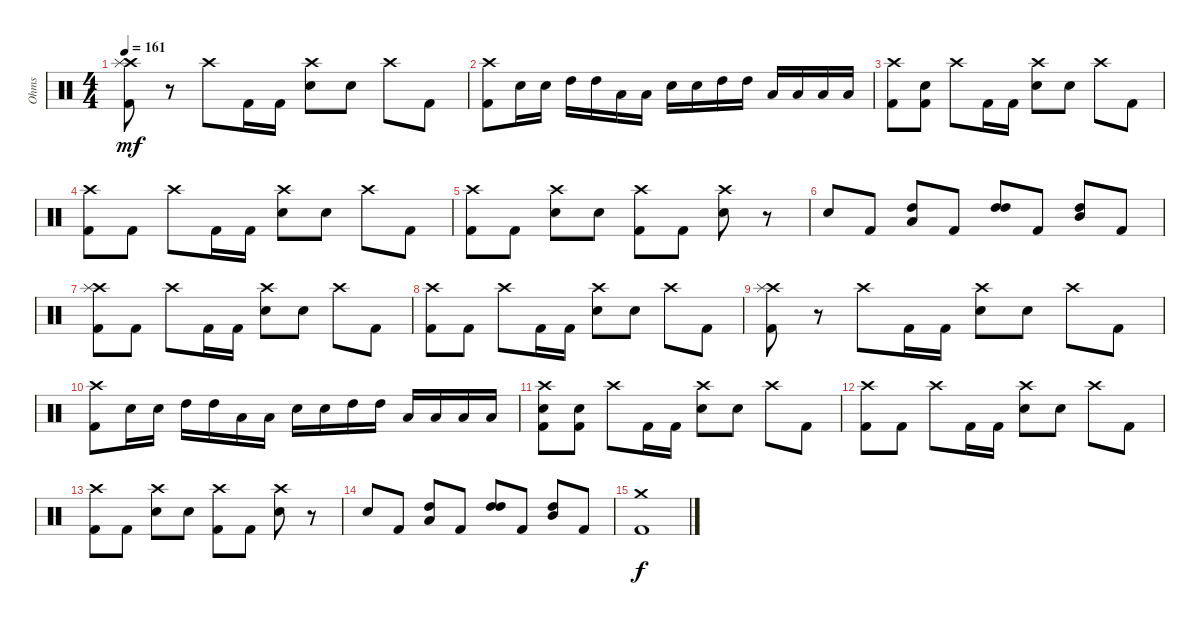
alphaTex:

\track ("Ohms" "Ohms") {instrument percussion}
\staff {score}
\articulation defaults
\ts (4 4)
\tempo 161
\clef neutral
\ks c
("Crash high (hit)" "Splash (hit)" "Kick (hit) 2").8{dy mf} r.8 "Crash high (hit)".8 "Kick (hit) 2".16 "Kick (hit) 2".16 ("Crash high (hit)" "Snare (hit) 2").8 "Snare (hit) 2".8 "Crash high (hit)".8 "Kick (hit) 2".8 |
("Crash high (hit)" "Kick (hit) 2").8 "Snare (hit) 2".16 "Snare (hit) 2".16 "High Tom (hit)".16 "High Tom (hit)".16 "Low Tom (hit)".16 "Low Tom (hit)".16 "Snare (hit) 2".16 "Snare (hit) 2".16 "High Tom (hit)".16 "High Tom (hit)".16 "Low Tom (hit)".16 "Low Tom (hit)".16 "Low Tom (hit)".16 "Low Tom (hit)".16 |
("Crash high (hit)" "Kick (hit) 2").8 ("Snare (hit) 2" "Kick (hit) 2").8 "Crash high (hit)".8 "Kick (hit) 2".16 "Kick (hit) 2".16 ("Crash high (hit)" "Snare (hit) 2").8 "Snare (hit) 2".8 "Crash high (hit)".8 "Kick (hit) 2".8 |
("Crash high (hit)" "Kick (hit) 2").8 "Kick (hit) 2".8 "Crash high (hit)".8 "Kick (hit) 2".16 "Kick (hit) 2".16 ("Crash high (hit)" "Snare (hit) 2").8 "Snare (hit) 2".8 "Crash high (hit)".8 "Kick (hit) 2".8 |
("Crash high (hit)" "Kick (hit) 2").8 "Kick (hit) 2".8 ("Crash high (hit)" "Snare (hit) 2").8 "Snare (hit) 2".8 ("Crash high (hit)" "Kick (hit) 2").8 "Kick (hit) 2".8 ("Crash high (hit)" "Snare (hit) 2").8 r.8 |
"Snare (hit) 2".8 "Kick (hit) 2".8 ("High Tom (hit)" "Low Tom (hit)").8 "Kick (hit) 2".8 ("High Tom (hit)" "High Tom (hit)").8 "Kick (hit) 2".8 ("High Tom (hit)" "Mid Tom (hit)").8 "Kick (hit) 2".8 |
("Crash high (hit)" "Splash (hit)" "Kick (hit) 2").8 "Kick (hit) 2".8 "Crash high (hit)".8 "Kick (hit) 2".16 "Kick (hit) 2".16 ("Crash high (hit)" "Snare (hit) 2").8 "Snare (hit) 2".8 "Crash high (hit)".8 "Kick (hit) 2".8 |
("Crash high (hit)" "Kick (hit) 2").8 "Kick (hit) 2".8 "Crash high (hit)".8 "Kick (hit) 2".16 "Kick (hit) 2".16 ("Crash high (hit)" "Snare (hit) 2").8 "Snare (hit) 2".8 "Crash high (hit)".8 "Kick (hit) 2".8 |
("Crash high (hit)" "Splash (hit)" "Kick (hit) 2").8 r.8 "Crash high (hit)".8 "Kick (hit) 2".16 "Kick (hit) 2".16 ("Crash high (hit)" "Snare (hit) 2").8 "Snare (hit) 2".8 "Crash high (hit)".8 "Kick (hit) 2".8 |
("Crash high (hit)" "Kick (hit) 2").8 "Snare (hit) 2".16 "Snare (hit) 2".16 "High Tom (hit)".16 "High Tom (hit)".16 "Low Tom (hit)".16 "Low Tom (hit)".16 "Snare (hit) 2".16 "Snare (hit) 2".16 "High Tom (hit)".16 "High Tom (hit)".16 "Low Tom (hit)".16 "Low Tom (hit)".16 "Low Tom (hit)".16 "Low Tom (hit)".16 |
("Crash high (hit)" "Snare (hit) 2" "Kick (hit) 2").8 ("Snare (hit) 2" "Kick (hit) 2").8 "Crash high (hit)".8 "Kick (hit) 2".16 "Kick (hit) 2".16 ("Crash high (hit)" "Snare (hit) 2").8 "Snare (hit) 2".8 "Crash high (hit)".8 "Kick (hit) 2".8 |
("Crash high (hit)" "Kick (hit) 2").8 "Kick (hit) 2".8 "Crash high (hit)".8 "Kick (hit) 2".16 "Kick (hit) 2".16 ("Crash high (hit)" "Snare (hit) 2").8 "Snare (hit) 2".8 "Crash high (hit)".8 "Kick (hit) 2".8 |
("Crash high (hit)" "Kick (hit) 2").8 "Kick (hit) 2".8 ("Crash high (hit)" "Snare (hit) 2").8 "Snare (hit) 2".8 ("Crash high (hit)" "Kick (hit) 2").8 "Kick (hit) 2".8 ("Crash high (hit)" "Snare (hit) 2").8 r.8 |
"Snare (hit) 2".8 "Kick (hit) 2".8 ("High Tom (hit)" "Low Tom (hit)").8 "Kick (hit) 2".8 ("High Tom (hit)" "High Tom (hit)").8 "Kick (hit) 2".8 ("High Tom (hit)" "Mid Tom (hit)").8 "Kick (hit) 2".8 |
("Crash medium (hit)" "Kick (hit) 2").1{dy f}
